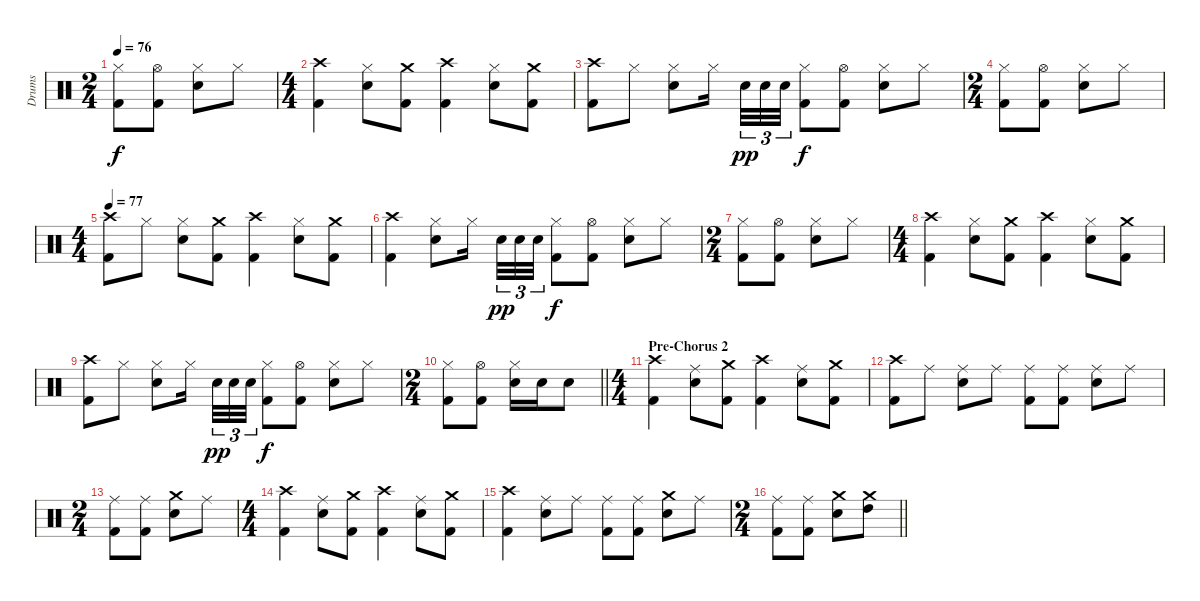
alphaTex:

\track ("Drums" "Drums") {instrument percussion}
\staff {score}
\articulation defaults
\ts (2 4)
\tempo 76
\clef neutral
\ks c
("Hi-Hat (closed)" "Kick (hit) 2").8{dy f} ("Hi-Hat (open)" "Kick (hit) 2").8 ("Hi-Hat (closed)" "Electric Snare (hit)").8 "Hi-Hat (closed)".8 |
\ts (4 4)
("Crash high (hit)" "Kick (hit) 2").4 ("Hi-Hat (closed)" "Electric Snare (hit)").8 ("Crash medium (hit)" "Kick (hit) 2").8 ("Crash high (hit)" "Kick (hit) 2").4 ("Hi-Hat (closed)" "Electric Snare (hit)").8 ("Crash medium (hit)" "Kick (hit) 2").8 |
("Crash high (hit)" "Kick (hit) 2").8 "Hi-Hat (closed)".8 ("Hi-Hat (closed)" "Electric Snare (hit)").8 "Hi-Hat (closed)".16{beam splitsecondary} "Electric Snare (hit)".32{tu (3 2) dy pp} "Electric Snare (hit)".32{tu (3 2)} "Electric Snare (hit)".32{tu (3 2)} ("Hi-Hat (closed)" "Kick (hit) 2").8{dy f} ("Hi-Hat (open)" "Kick (hit) 2").8 ("Hi-Hat (closed)" "Electric Snare (hit)").8 "Hi-Hat (closed)".8 |
\ts (2 4)
("Hi-Hat (closed)" "Kick (hit) 2").8 ("Hi-Hat (open)" "Kick (hit) 2").8 ("Hi-Hat (closed)" "Electric Snare (hit)").8 "Hi-Hat (closed)".8 |
\ts (4 4)
\tempo 77
("Crash high (hit)" "Kick (hit) 2").8 "Hi-Hat (closed)".8 ("Hi-Hat (closed)" "Electric Snare (hit)").8 ("Crash medium (hit)" "Kick (hit) 2").8 ("Crash high (hit)" "Kick (hit) 2").4 ("Hi-Hat (closed)" "Electric Snare (hit)").8 ("Crash medium (hit)" "Kick (hit) 2").8 |
("Crash high (hit)" "Kick (hit) 2").4 ("Hi-Hat (closed)" "Electric Snare (hit)").8 "Hi-Hat (closed)".16{beam splitsecondary} "Electric Snare (hit)".32{tu (3 2) dy pp} "Electric Snare (hit)".32{tu (3 2)} "Electric Snare (hit)".32{tu (3 2)} ("Hi-Hat (closed)" "Kick (hit) 2").8{dy f} ("Hi-Hat (open)" "Kick (hit) 2").8 ("Hi-Hat (closed)" "Electric Snare (hit)").8 "Hi-Hat (closed)".8 |
\ts (2 4)
("Hi-Hat (closed)" "Kick (hit) 2").8 ("Hi-Hat (open)" "Kick (hit) 2").8 ("Hi-Hat (closed)" "Electric Snare (hit)").8 "Hi-Hat (closed)".8 |
\ts (4 4)
("Crash high (hit)" "Kick (hit) 2").4 ("Hi-Hat (closed)" "Electric Snare (hit)").8 ("Crash medium (hit)" "Kick (hit) 2").8 ("Crash high (hit)" "Kick (hit) 2").4 ("Hi-Hat (closed)" "Electric Snare (hit)").8 ("Crash medium (hit)" "Kick (hit) 2").8 |
("Crash high (hit)" "Kick (hit) 2").8 "Hi-Hat (closed)".8 ("Hi-Hat (closed)" "Electric Snare (hit)").8 "Hi-Hat (closed)".16{beam splitsecondary} "Electric Snare (hit)".32{tu (3 2) dy pp} "Electric Snare (hit)".32{tu (3 2)} "Electric Snare (hit)".32{tu (3 2)} ("Hi-Hat (closed)" "Kick (hit) 2").8{dy f} ("Hi-Hat (open)" "Kick (hit) 2").8 ("Hi-Hat (closed)" "Electric Snare (hit)").8 "Hi-Hat (closed)".8 |
\ts (2 4)
\barLineRight lightlight
("Hi-Hat (closed)" "Kick (hit) 2").8 ("Hi-Hat (open)" "Kick (hit) 2").8 ("Hi-Hat (closed)" "Electric Snare (hit)").16 "Electric Snare (hit)".16 "Electric Snare (hit)".8 |
\ts (4 4)
\section ("" "Pre-Chorus 2")
("Crash high (hit)" "Kick (hit) 2").4 ("Ride (middle)" "Electric Snare (hit)").8 ("Crash medium (hit)" "Kick (hit) 2").8 ("Crash high (hit)" "Kick (hit) 2").4 ("Ride (middle)" "Electric Snare (hit)").8 ("Crash medium (hit)" "Kick (hit) 2").8 |
("Crash high (hit)" "Kick (hit) 2").8 "Ride (middle)".8 ("Ride (middle)" "Electric Snare (hit)").8 "Ride (middle)".8 ("Ride (middle)" "Kick (hit) 2").8 ("Ride (middle)" "Kick (hit) 2").8 ("Ride (middle)" "Electric Snare (hit)").8 "Ride (middle)".8 |
\ts (2 4)
("Ride (middle)" "Kick (hit) 2").8 ("Ride (middle)" "Kick (hit) 2").8 ("Crash medium (hit)" "Electric Snare (hit)").8 "Ride (middle)".8 |
\ts (4 4)
("Crash high (hit)" "Kick (hit) 2").4 ("Ride (middle)" "Electric Snare (hit)").8 ("Crash medium (hit)" "Kick (hit) 2").8 ("Crash high (hit)" "Kick (hit) 2").4 ("Ride (middle)" "Electric Snare (hit)").8 ("Crash medium (hit)" "Kick (hit) 2").8 |
("Crash high (hit)" "Kick (hit) 2").4 ("Ride (middle)" "Electric Snare (hit)").8 "Ride (middle)".8 ("Ride (middle)" "Kick (hit) 2").8 ("Ride (middle)" "Kick (hit) 2").8 ("Crash medium (hit)" "Electric Snare (hit)").8 "Ride (middle)".8 |
\ts (2 4)
\barLineRight lightlight
("Ride (middle)" "Kick (hit) 2").8 ("Ride (middle)" "Kick (hit) 2").8 ("Crash medium (hit)" "Electric Snare (hit)").8 ("Crash medium (hit)" "High Tom (hit)").8
